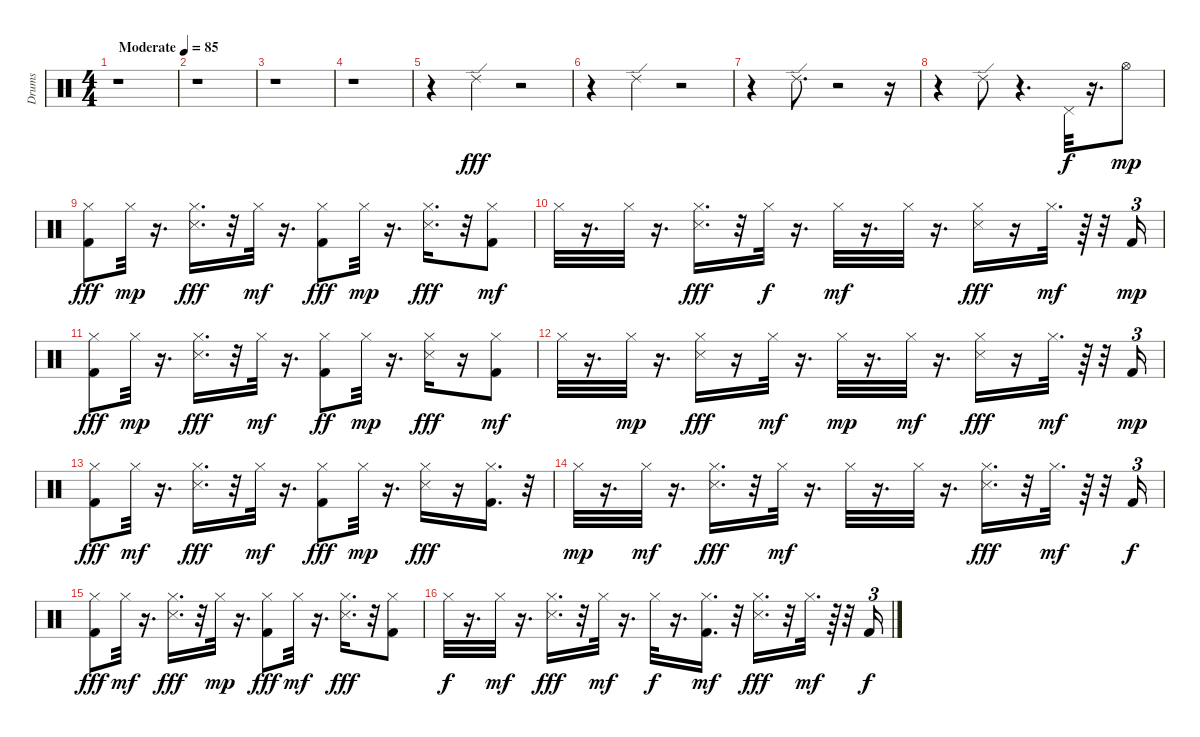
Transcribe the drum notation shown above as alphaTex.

\track ("Drums" "Drums") {instrument percussion}
\staff {score}
\articulation defaults
\ts (4 4)
\tempo (85 "Moderate")
\clef neutral
\ks c
r.1{dy fff} |
r.1 |
r.1 |
r.1 |
r.4 "Ride (edge) 2".4 r.2 |
r.4 "Ride (edge) 2".4 r.2 |
r.4 "Ride (edge) 2".8{d} r.2 r.16 |
r.4 "Ride (edge) 2".8 r.4{d} "Pedal Hi-Hat (hit)".32{dy f} r.16{d} "Hi-Hat (open)".8{dy mp} |
("Hi-Hat (closed)" "Kick (hit) 2").8{dy fff} "Hi-Hat (closed)".32{dy mp} r.16{d} ("Snare (side stick) 3" "Hi-Hat (closed)").16{d dy fff} r.32 "Hi-Hat (closed)".32{dy mf} r.16{d} ("Hi-Hat (closed)" "Kick (hit) 2").8{dy fff} "Hi-Hat (closed)".32{dy mp} r.16{d} ("Snare (side stick) 3" "Hi-Hat (closed)").16{d dy fff} r.32 ("Kick (hit) 2" "Hi-Hat (closed)").8{dy mf} |
"Hi-Hat (closed)".32 r.16{d} "Hi-Hat (closed)".32 r.16{d} ("Snare (side stick) 3" "Hi-Hat (closed)").16{d dy fff} r.32 "Hi-Hat (closed)".32{dy f} r.16{d} "Hi-Hat (closed)".32{dy mf} r.16{d} "Hi-Hat (closed)".32 r.16{d} ("Snare (side stick) 3" "Hi-Hat (closed)").16{dy fff} r.16 "Hi-Hat (closed)".32{d dy mf} r.64 r.32 "Kick (hit) 2".16{tu (3 2) dy mp} |
("Hi-Hat (closed)" "Kick (hit) 2").8{dy fff} "Hi-Hat (closed)".32{dy mp} r.16{d} ("Snare (side stick) 3" "Hi-Hat (closed)").16{d dy fff} r.32 "Hi-Hat (closed)".32{dy mf} r.16{d} ("Hi-Hat (closed)" "Kick (hit) 2").8{dy ff} "Hi-Hat (closed)".32{dy mp} r.16{d} ("Snare (side stick) 3" "Hi-Hat (closed)").16{dy fff} r.16 ("Kick (hit) 2" "Hi-Hat (closed)").8{dy mf} |
"Hi-Hat (closed)".32 r.16{d} "Hi-Hat (closed)".32{dy mp} r.16{d} ("Snare (side stick) 3" "Hi-Hat (closed)").16{dy fff} r.16 "Hi-Hat (closed)".32{dy mf} r.16{d} "Hi-Hat (closed)".32{dy mp} r.16{d} "Hi-Hat (closed)".32{dy mf} r.16{d} ("Snare (side stick) 3" "Hi-Hat (closed)").16{dy fff} r.16 "Hi-Hat (closed)".32{d dy mf} r.64 r.32 "Kick (hit) 2".16{tu (3 2) dy mp} |
("Hi-Hat (closed)" "Kick (hit) 2").8{dy fff} "Hi-Hat (closed)".32{dy mf} r.16{d} ("Snare (side stick) 3" "Hi-Hat (closed)").16{d dy fff} r.32 "Hi-Hat (closed)".32{dy mf} r.16{d} ("Kick (hit) 2" "Hi-Hat (closed)").8{dy fff} "Hi-Hat (closed)".32{dy mp} r.16{d} ("Snare (side stick) 3" "Hi-Hat (closed)").16{dy fff} r.16 ("Kick (hit) 2" "Hi-Hat (closed)").16{d} r.32 |
"Hi-Hat (closed)".32{dy mp} r.16{d} "Hi-Hat (closed)".32{dy mf} r.16{d} ("Snare (side stick) 3" "Hi-Hat (closed)").16{d dy fff} r.32 "Hi-Hat (closed)".32{dy mf} r.16{d} "Hi-Hat (closed)".32 r.16{d} "Hi-Hat (closed)".32 r.16{d} ("Snare (side stick) 3" "Hi-Hat (closed)").16{d dy fff} r.32 "Hi-Hat (closed)".32{d dy mf} r.64 r.32 "Kick (hit) 2".16{tu (3 2) dy f} |
("Hi-Hat (closed)" "Kick (hit) 2").8{dy fff} "Hi-Hat (closed)".32{dy mf} r.16{d} ("Snare (side stick) 3" "Hi-Hat (closed)").16{d dy fff} r.32 "Hi-Hat (closed)".32{dy mp} r.16{d} ("Kick (hit) 2" "Hi-Hat (closed)").8{dy fff} "Hi-Hat (closed)".32{dy mf} r.16{d} ("Snare (side stick) 3" "Hi-Hat (closed)").16{d dy fff} r.32 ("Kick (hit) 2" "Hi-Hat (closed)").8 |
"Hi-Hat (closed)".32{dy f} r.16{d} "Hi-Hat (closed)".32{dy mf} r.16{d} ("Snare (side stick) 3" "Hi-Hat (closed)").16{d dy fff} r.32 "Hi-Hat (closed)".32{dy mf} r.16{d} "Hi-Hat (closed)".32{dy f} r.16{d} ("Kick (hit) 2" "Hi-Hat (closed)").16{d dy mf} r.32 ("Snare (side stick) 3" "Hi-Hat (closed)").16{d dy fff} r.32 "Hi-Hat (closed)".32{d dy mf} r.64 r.32 "Kick (hit) 2".16{tu (3 2) dy f}
